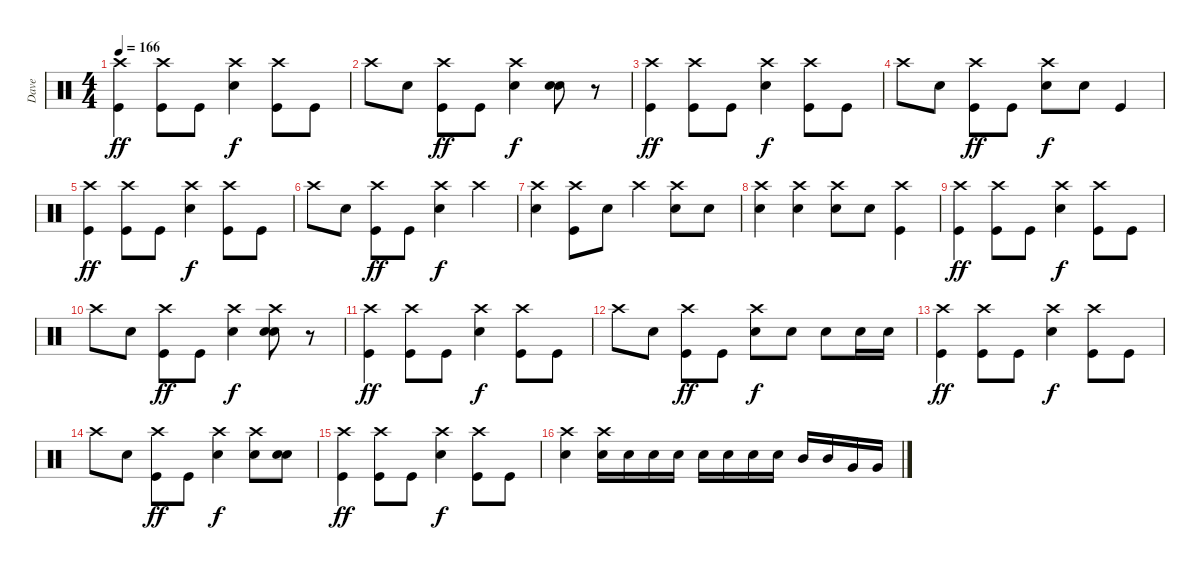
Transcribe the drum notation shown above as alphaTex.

\track ("Dave" "Dave") {instrument percussion}
\staff {score}
\articulation defaults
\ts (4 4)
\tempo 166
\clef neutral
\ks c
("Crash high (hit)" "Kick (hit)").4{dy ff} ("Crash high (hit)" "Kick (hit)").8 "Kick (hit)".8 ("Crash high (hit)" "Snare (hit) 2").4{dy f} ("Crash high (hit)" "Kick (hit)").8 "Kick (hit)".8 |
"Crash high (hit)".8 "Snare (hit) 2".8 ("Crash high (hit)" "Kick (hit)").8{dy ff} "Kick (hit)".8 ("Crash high (hit)" "Snare (hit) 2").4{dy f} ("Snare (hit) 2" "Snare (hit) 2").8 r.8 |
("Crash high (hit)" "Kick (hit)").4{dy ff} ("Crash high (hit)" "Kick (hit)").8 "Kick (hit)".8 ("Crash high (hit)" "Snare (hit) 2").4{dy f} ("Crash high (hit)" "Kick (hit)").8 "Kick (hit)".8 |
"Crash high (hit)".8 "Snare (hit) 2".8 ("Crash high (hit)" "Kick (hit)").8{dy ff} "Kick (hit)".8 ("Crash high (hit)" "Snare (hit) 2").8{dy f} "Snare (hit) 2".8 "Kick (hit)".4 |
("Crash high (hit)" "Kick (hit)").4{dy ff} ("Crash high (hit)" "Kick (hit)").8 "Kick (hit)".8 ("Crash high (hit)" "Snare (hit) 2").4{dy f} ("Crash high (hit)" "Kick (hit)").8 "Kick (hit)".8 |
"Crash high (hit)".8 "Snare (hit) 2".8 ("Crash high (hit)" "Kick (hit)").8{dy ff} "Kick (hit)".8 ("Crash high (hit)" "Snare (hit) 2").4{dy f} "Crash high (hit)".4 |
("Crash high (hit)" "Snare (hit) 2").4 ("Crash high (hit)" "Kick (hit)").8 "Snare (hit) 2".8 "Crash high (hit)".4 ("Crash high (hit)" "Snare (hit) 2").8 "Snare (hit) 2".8 |
("Crash high (hit)" "Snare (hit) 2").4 ("Crash high (hit)" "Snare (hit) 2").4 ("Crash high (hit)" "Snare (hit) 2").8 "Snare (hit) 2".8 ("Crash high (hit)" "Kick (hit)").4 |
("Crash high (hit)" "Kick (hit)").4{dy ff} ("Crash high (hit)" "Kick (hit)").8 "Kick (hit)".8 ("Crash high (hit)" "Snare (hit) 2").4{dy f} ("Crash high (hit)" "Kick (hit)").8 "Kick (hit)".8 |
"Crash high (hit)".8 "Snare (hit) 2".8 ("Crash high (hit)" "Kick (hit)").8{dy ff} "Kick (hit)".8 ("Crash high (hit)" "Snare (hit) 2").4{dy f} ("Crash high (hit)" "Snare (hit) 2" "Snare (hit) 2").8 r.8 |
("Crash high (hit)" "Kick (hit)").4{dy ff} ("Crash high (hit)" "Kick (hit)").8 "Kick (hit)".8 ("Crash high (hit)" "Snare (hit) 2").4{dy f} ("Crash high (hit)" "Kick (hit)").8 "Kick (hit)".8 |
"Crash high (hit)".8 "Snare (hit) 2".8 ("Crash high (hit)" "Kick (hit)").8{dy ff} "Kick (hit)".8 ("Crash high (hit)" "Snare (hit) 2").8{dy f} "Snare (hit) 2".8 "Snare (hit) 2".8 "Snare (hit) 2".16 "Snare (hit) 2".16 |
("Crash high (hit)" "Kick (hit)").4{dy ff} ("Crash high (hit)" "Kick (hit)").8 "Kick (hit)".8 ("Crash high (hit)" "Snare (hit) 2").4{dy f} ("Crash high (hit)" "Kick (hit)").8 "Kick (hit)".8 |
"Crash high (hit)".8 "Snare (hit) 2".8 ("Crash high (hit)" "Kick (hit)").8{dy ff} "Kick (hit)".8 ("Crash high (hit)" "Snare (hit) 2").4{dy f} ("Crash high (hit)" "Snare (hit) 2").8 ("Snare (hit) 2" "Snare (hit) 2").8 |
("Crash high (hit)" "Kick (hit)").4{dy ff} ("Crash high (hit)" "Kick (hit)").8 "Kick (hit)".8 ("Crash high (hit)" "Snare (hit) 2").4{dy f} ("Crash high (hit)" "Kick (hit)").8 "Kick (hit)".8 |
("Crash high (hit)" "Snare (hit) 2").4 ("Crash high (hit)" "Snare (hit) 2").16 "Snare (hit) 2".16 "Snare (hit) 2".16 "Snare (hit) 2".16 "Snare (hit) 2".16 "Snare (hit) 2".16 "Snare (hit) 2".16 "Snare (hit) 2".16 "Mid Tom (hit)".16 "Mid Tom (hit)".16 "Very Low Tom (hit)".16 "Very Low Tom (hit)".16
